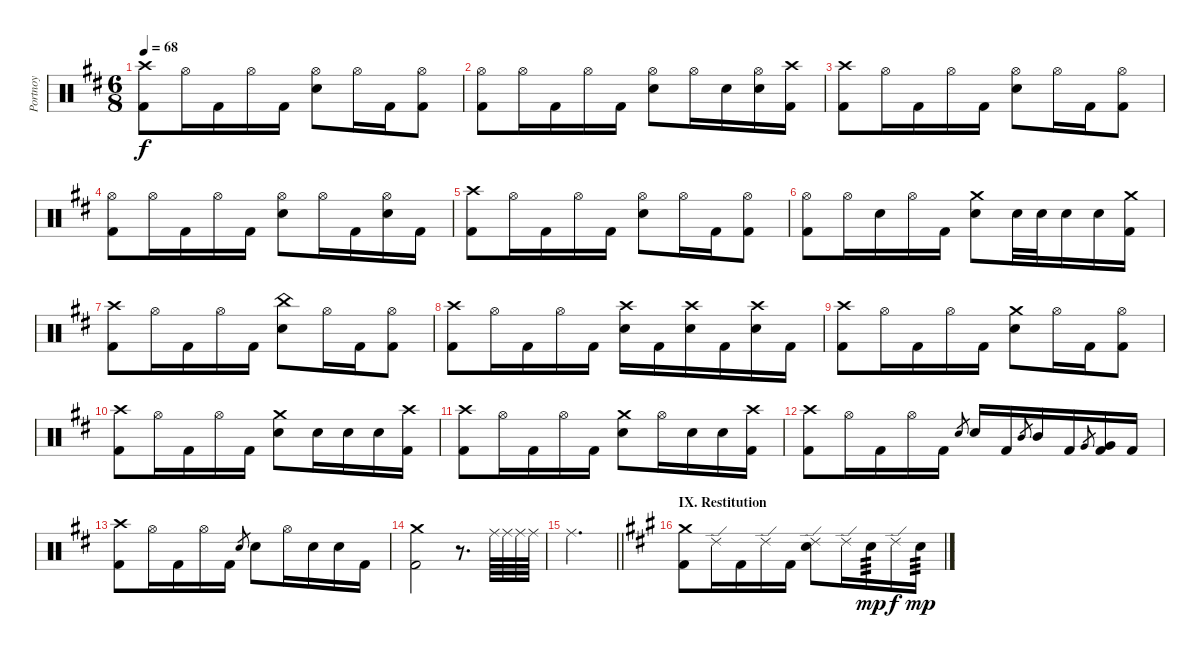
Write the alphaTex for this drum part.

\track ("Portnoy" "Portnoy") {instrument percussion}
\staff {score}
\articulation defaults
\ts (6 8)
\tempo 68
\clef neutral
\ks d
("Crash high (hit)" "Kick (hit) 2").8{dy f} "Hi-Hat (open)".16 "Kick (hit) 2".16 "Hi-Hat (open)".16 "Kick (hit) 2".16 ("Hi-Hat (open)" "Snare (hit) 2").8 "Hi-Hat (open)".16 "Kick (hit) 2".16 ("Kick (hit) 2" "Hi-Hat (open)").8 |
("Hi-Hat (open)" "Kick (hit) 2").8 "Hi-Hat (open)".16 "Kick (hit) 2".16 "Hi-Hat (open)".16 "Kick (hit) 2".16 ("Hi-Hat (open)" "Snare (hit) 2").8 "Hi-Hat (open)".16 "Snare (hit) 2".16 ("Hi-Hat (open)" "Snare (hit) 2").16 ("Crash high (hit)" "Kick (hit) 2").16 |
("Crash high (hit)" "Kick (hit) 2").8 "Hi-Hat (open)".16 "Kick (hit) 2".16 "Hi-Hat (open)".16 "Kick (hit) 2".16 ("Hi-Hat (open)" "Snare (hit) 2").8 "Hi-Hat (open)".16 "Kick (hit) 2".16 ("Kick (hit) 2" "Hi-Hat (open)").8 |
("Hi-Hat (open)" "Kick (hit) 2").8 "Hi-Hat (open)".16 "Kick (hit) 2".16 "Hi-Hat (open)".16 "Kick (hit) 2".16 ("Hi-Hat (open)" "Snare (hit) 2").8 "Hi-Hat (open)".16 "Kick (hit) 2".16 ("Hi-Hat (open)" "Snare (hit) 2").16 "Kick (hit) 2".16 |
("Crash high (hit)" "Kick (hit) 2").8 "Hi-Hat (open)".16 "Kick (hit) 2".16 "Hi-Hat (open)".16 "Kick (hit) 2".16 ("Hi-Hat (open)" "Snare (hit) 2").8 "Hi-Hat (open)".16 "Kick (hit) 2".16 ("Kick (hit) 2" "Hi-Hat (open)").8 |
("Hi-Hat (open)" "Kick (hit) 2").8 "Hi-Hat (open)".16 "Snare (hit) 2".16 "Hi-Hat (open)".16 "Kick (hit) 2".16 ("Crash medium (hit)" "Snare (hit) 2").8 "Snare (hit) 2".32 "Snare (hit) 2".32 "Snare (hit) 2".16 "Snare (hit) 2".16 ("Crash medium (hit)" "Kick (hit) 2").16 |
("Crash high (hit)" "Kick (hit) 2").8 "Hi-Hat (open)".16 "Kick (hit) 2".16 "Hi-Hat (open)".16 "Kick (hit) 2".16 ("China (hit)" "Snare (hit) 2").8 "Hi-Hat (open)".16 "Kick (hit) 2".16 ("Kick (hit) 2" "Hi-Hat (open)").8 |
("Crash high (hit)" "Kick (hit) 2").8 "Hi-Hat (open)".16 "Kick (hit) 2".16 "Hi-Hat (open)".16 "Kick (hit) 2".16 ("Crash high (hit)" "Snare (hit) 2").16 "Kick (hit) 2".16 ("Crash high (hit)" "Snare (hit) 2").16 "Kick (hit) 2".16 ("Crash high (hit)" "Snare (hit) 2").16 "Kick (hit) 2".16 |
("Crash high (hit)" "Kick (hit) 2").8 "Hi-Hat (open)".16 "Kick (hit) 2".16 "Hi-Hat (open)".16 "Kick (hit) 2".16 ("Crash medium (hit)" "Snare (hit) 2").8 "Hi-Hat (open)".16 "Kick (hit) 2".16 ("Kick (hit) 2" "Hi-Hat (open)").8 |
("Crash high (hit)" "Kick (hit) 2").8 "Hi-Hat (open)".16 "Kick (hit) 2".16 "Hi-Hat (open)".16 "Kick (hit) 2".16 ("Crash medium (hit)" "Snare (hit) 2").8 "Snare (hit) 2".16 "Snare (hit) 2".16 "Snare (hit) 2".16 ("Crash high (hit)" "Kick (hit) 2").16 |
("Crash high (hit)" "Kick (hit) 2").8 "Hi-Hat (open)".16 "Kick (hit) 2".16 "Hi-Hat (open)".16 "Kick (hit) 2".16 ("Crash medium (hit)" "Snare (hit) 2").8 "Hi-Hat (open)".16 "Snare (hit) 2".16 "Snare (hit) 2".16 ("Crash high (hit)" "Kick (hit) 2").16 |
("Crash high (hit)" "Kick (hit) 2").8 "Hi-Hat (open)".16 "Kick (hit) 2".16 "Hi-Hat (open)".16 "Kick (hit) 2".16 "Snare (hit) 2".8{gr} "Snare (hit) 2".16 "Kick (hit) 2".16 "Mid Tom (hit)".8{gr} "Mid Tom (hit)".16 "Kick (hit) 2".16 "Very Low Tom (hit)".8{gr} ("Kick (hit) 2" "Very Low Tom (hit)").16 "Kick (hit) 2".16 |
("Crash high (hit)" "Kick (hit) 2").8 "Hi-Hat (open)".16 "Kick (hit) 2".16 "Hi-Hat (open)".16 "Kick (hit) 2".16 "Snare (hit) 2".8{gr} "Snare (hit) 2".8 "Hi-Hat (open)".16 "Snare (hit) 2".16 "Snare (hit) 2".16 "Kick (hit) 2".16 |
("Crash medium (hit)" "Kick (hit) 2").2 r.8{d} "Ride (middle)".64 "Ride (middle)".64 "Ride (middle)".64 "Ride (middle)".64 |
\barLineRight lightlight "Ride (middle)".2{d}
|
\section ("" "IX. Restitution")
\ks a
("Crash medium (hit)" "Kick (hit) 2").8 "Ride (edge) 2".16 "Kick (hit) 2".16 "Ride (edge) 2".16 "Kick (hit) 2".16 ("Ride (edge) 2" "Snare (hit) 2").8 "Ride (edge) 2".16 "Snare (hit) 2".16{tp 3 dy mp} "Ride (edge) 2".16{dy f} "Snare (hit) 2".16{tp 3 dy mp}
